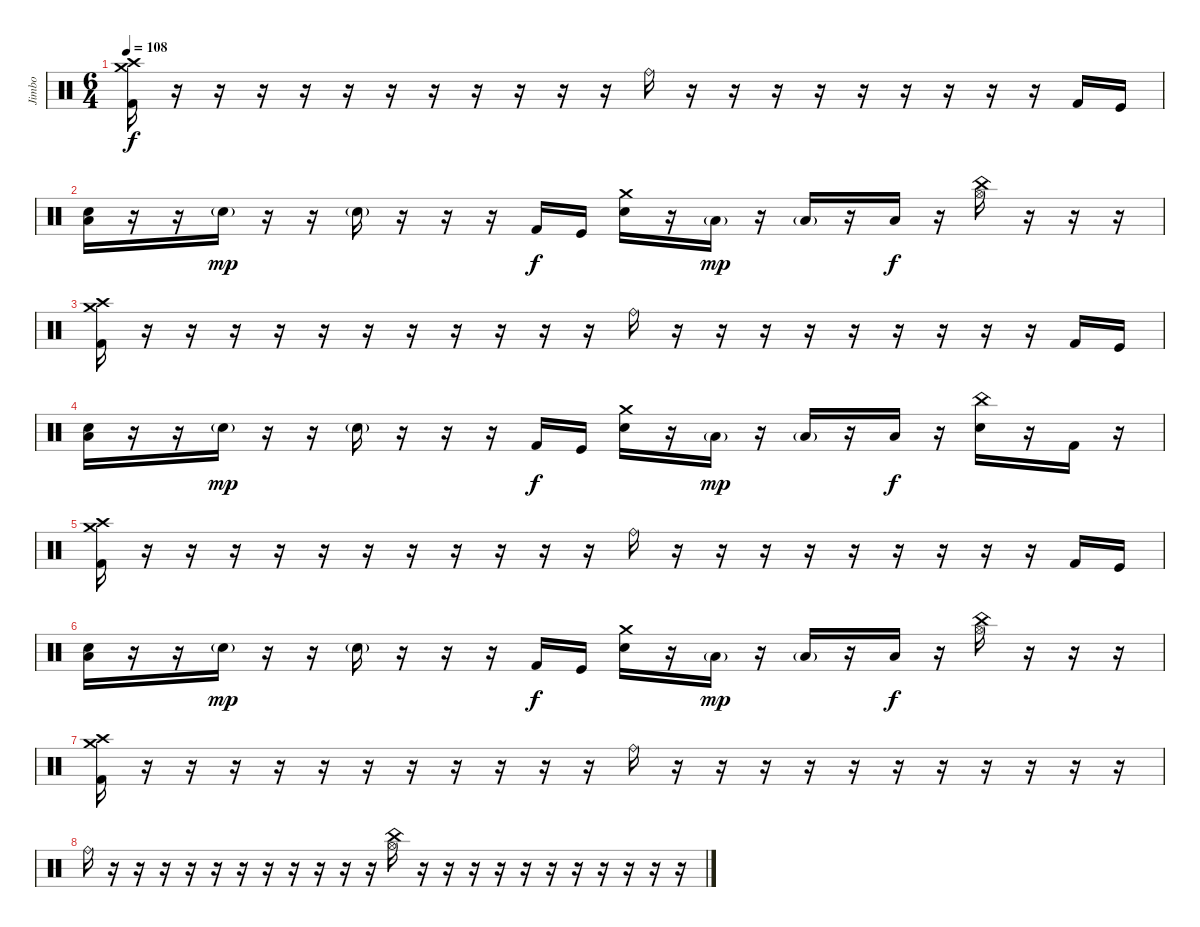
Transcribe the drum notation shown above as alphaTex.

\track ("Jimbo" "Jimbo") {instrument percussion}
\staff
\articulation defaults
\ts (6 4)
\tempo 108
\clef neutral
\ks c
("Kick (hit) 2" "Crash medium (hit)" "Crash high (hit)").16{dy f} r.16 r.16 r.16 r.16 r.16 r.16 r.16 r.16 r.16 r.16 r.16 "Ride (bell)".16 r.16 r.16 r.16 r.16 r.16 r.16 r.16 r.16 r.16 "Kick (hit) 2".16 "Kick (hit)".16 |
("Electric Snare (hit)" "Low Floor Tom (hit)").16 r.16 r.16 "Electric Snare (hit)"{g}.16{dy mp} r.16 r.16 "Electric Snare (hit)"{g}.16 r.16 r.16 r.16 "Kick (hit) 2".16{dy f} "Kick (hit)".16 ("Electric Snare (hit)" "Crash medium (hit)").16 r.16 "Low Tom (hit)"{g}.16{dy mp} r.16 "Low Floor Tom (hit)"{g}.16 r.16 "Low Floor Tom (hit)".16{dy f} r.16 ("Hi-Hat (open)" "China (hit)").16 r.16 r.16 r.16 |
("Kick (hit) 2" "Crash medium (hit)" "Crash high (hit)").16 r.16 r.16 r.16 r.16 r.16 r.16 r.16 r.16 r.16 r.16 r.16 "Ride (bell)".16 r.16 r.16 r.16 r.16 r.16 r.16 r.16 r.16 r.16 "Kick (hit) 2".16 "Kick (hit)".16 |
("Electric Snare (hit)" "Low Floor Tom (hit)").16 r.16 r.16 "Electric Snare (hit)"{g}.16{dy mp} r.16 r.16 "Electric Snare (hit)"{g}.16 r.16 r.16 r.16 "Kick (hit) 2".16{dy f} "Kick (hit)".16 ("Electric Snare (hit)" "Crash medium (hit)").16 r.16 "Low Tom (hit)"{g}.16{dy mp} r.16 "Low Floor Tom (hit)"{g}.16 r.16 "Low Floor Tom (hit)".16{dy f} r.16 ("Electric Snare (hit)" "China (hit)").16 r.16 "Kick (hit) 2".16 r.16 |
("Kick (hit) 2" "Crash medium (hit)" "Crash high (hit)").16 r.16 r.16 r.16 r.16 r.16 r.16 r.16 r.16 r.16 r.16 r.16 "Ride (bell)".16 r.16 r.16 r.16 r.16 r.16 r.16 r.16 r.16 r.16 "Kick (hit) 2".16 "Kick (hit)".16 |
("Electric Snare (hit)" "Low Floor Tom (hit)").16 r.16 r.16 "Electric Snare (hit)"{g}.16{dy mp} r.16 r.16 "Electric Snare (hit)"{g}.16 r.16 r.16 r.16 "Kick (hit) 2".16{dy f} "Kick (hit)".16 ("Electric Snare (hit)" "Crash medium (hit)").16 r.16 "Low Tom (hit)"{g}.16{dy mp} r.16 "Low Floor Tom (hit)"{g}.16 r.16 "Low Floor Tom (hit)".16{dy f} r.16 ("Hi-Hat (open)" "China (hit)").16 r.16 r.16 r.16 |
("Kick (hit) 2" "Crash medium (hit)" "Crash high (hit)").16 r.16 r.16 r.16 r.16 r.16 r.16 r.16 r.16 r.16 r.16 r.16 "Ride (bell)".16 r.16 r.16 r.16 r.16 r.16 r.16 r.16 r.16 r.16 r.16 r.16 |
"Ride (bell)".16 r.16 r.16 r.16 r.16 r.16 r.16 r.16 r.16 r.16 r.16 r.16 ("Hi-Hat (open)" "China (hit)").16 r.16 r.16 r.16 r.16 r.16 r.16 r.16 r.16 r.16 r.16 r.16
